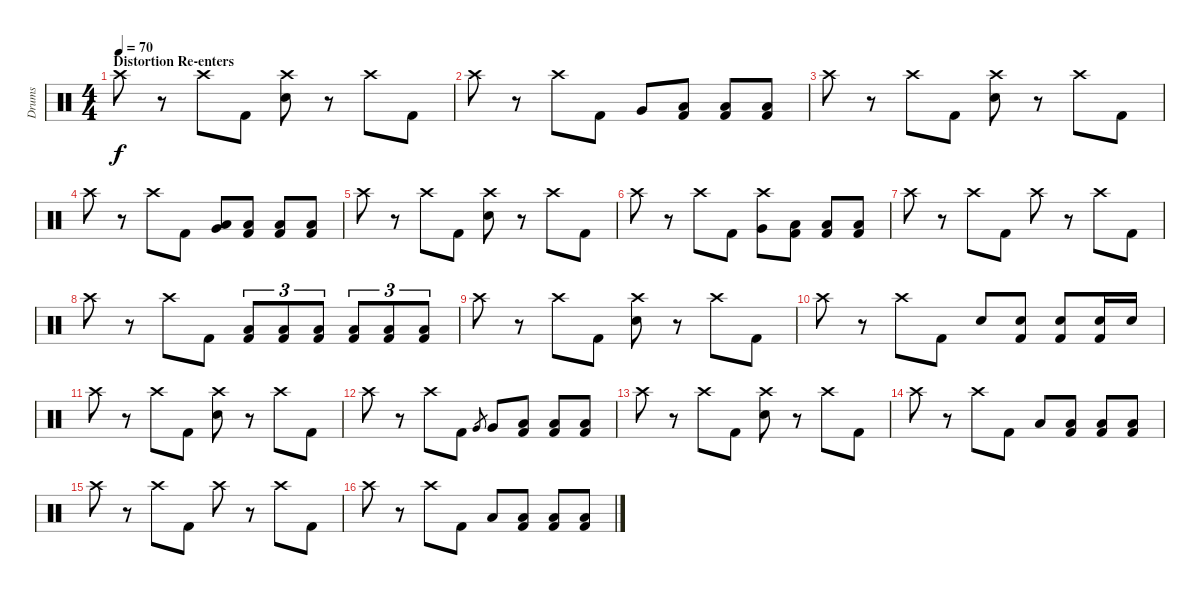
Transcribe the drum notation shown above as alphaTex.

\track ("Drums" "Drums") {instrument percussion}
\staff {score}
\articulation defaults
\ts (4 4)
\section ("" "Distortion Re-enters")
\tempo 70
\clef neutral
\ks c "Crash high (hit)".8{dy f}
r.8 "Crash high (hit)".8 "Kick (hit) 2".8 ("Crash high (hit)" "Electric Snare (hit)").8 r.8 "Crash high (hit)".8 "Kick (hit) 2".8 |
"Crash high (hit)".8 r.8 "Crash high (hit)".8 "Kick (hit) 2".8 "Very Low Tom (hit)".8 ("Low Floor Tom (hit)" "Kick (hit) 2").8 ("Low Floor Tom (hit)" "Kick (hit) 2").8 ("Low Floor Tom (hit)" "Kick (hit) 2").8 |
"Crash high (hit)".8 r.8 "Crash high (hit)".8 "Kick (hit) 2".8 ("Crash high (hit)" "Electric Snare (hit)").8 r.8 "Crash high (hit)".8 "Kick (hit) 2".8 |
"Crash high (hit)".8 r.8 "Crash high (hit)".8 "Kick (hit) 2".8 ("Low Tom (hit)" "Very Low Tom (hit)").8 ("Low Floor Tom (hit)" "Kick (hit) 2").8 ("Low Floor Tom (hit)" "Kick (hit) 2").8 ("Low Floor Tom (hit)" "Kick (hit) 2").8 |
"Crash high (hit)".8 r.8 "Crash high (hit)".8 "Kick (hit) 2".8 ("Crash high (hit)" "Electric Snare (hit)").8 r.8 "Crash high (hit)".8 "Kick (hit) 2".8 |
"Crash high (hit)".8 r.8 "Crash high (hit)".8 "Kick (hit) 2".8 ("Crash high (hit)" "Very Low Tom (hit)").8 ("Low Floor Tom (hit)" "Kick (hit) 2").8 ("Low Floor Tom (hit)" "Kick (hit) 2").8 ("Low Floor Tom (hit)" "Kick (hit) 2").8 |
"Crash high (hit)".8 r.8 "Crash high (hit)".8 "Kick (hit) 2".8 "Crash high (hit)".8 r.8 "Crash high (hit)".8 "Kick (hit) 2".8 |
"Crash high (hit)".8 r.8 "Crash high (hit)".8 "Kick (hit) 2".8 ("Low Floor Tom (hit)" "Kick (hit) 2").8{tu (3 2)} ("Low Floor Tom (hit)" "Kick (hit) 2").8{tu (3 2)} ("Low Floor Tom (hit)" "Kick (hit) 2").8{tu (3 2)} ("Low Floor Tom (hit)" "Kick (hit) 2").8{tu (3 2)} ("Low Floor Tom (hit)" "Kick (hit) 2").8{tu (3 2)} ("Low Floor Tom (hit)" "Kick (hit) 2").8{tu (3 2)} |
"Crash high (hit)".8 r.8 "Crash high (hit)".8 "Kick (hit) 2".8 ("Crash high (hit)" "Electric Snare (hit)").8 r.8 "Crash high (hit)".8 "Kick (hit) 2".8 |
"Crash high (hit)".8 r.8 "Crash high (hit)".8 "Kick (hit) 2".8 "Electric Snare (hit)".8 ("Electric Snare (hit)" "Kick (hit) 2").8 ("Electric Snare (hit)" "Kick (hit) 2").8 ("Electric Snare (hit)" "Kick (hit) 2").16 "Electric Snare (hit)".16 |
"Crash high (hit)".8 r.8 "Crash high (hit)".8 "Kick (hit) 2".8 ("Crash high (hit)" "Electric Snare (hit)").8 r.8 "Crash high (hit)".8 "Kick (hit) 2".8 |
"Crash high (hit)".8 r.8 "Crash high (hit)".8 "Kick (hit) 2".8 "Very Low Tom (hit)".8{gr} "Very Low Tom (hit)".8 ("Low Floor Tom (hit)" "Kick (hit) 2").8 ("Low Floor Tom (hit)" "Kick (hit) 2").8 ("Low Floor Tom (hit)" "Kick (hit) 2").8 |
"Crash high (hit)".8 r.8 "Crash high (hit)".8 "Kick (hit) 2".8 ("Crash high (hit)" "Electric Snare (hit)").8 r.8 "Crash high (hit)".8 "Kick (hit) 2".8 |
"Crash high (hit)".8 r.8 "Crash high (hit)".8 "Kick (hit) 2".8 "Low Floor Tom (hit)".8 ("Low Floor Tom (hit)" "Kick (hit) 2").8 ("Low Floor Tom (hit)" "Kick (hit) 2").8 ("Low Floor Tom (hit)" "Kick (hit) 2").8 |
"Crash high (hit)".8 r.8 "Crash high (hit)".8 "Kick (hit) 2".8 "Crash high (hit)".8 r.8 "Crash high (hit)".8 "Kick (hit) 2".8 |
"Crash high (hit)".8 r.8 "Crash high (hit)".8 "Kick (hit) 2".8 "Low Floor Tom (hit)".8 ("Low Floor Tom (hit)" "Kick (hit) 2").8 ("Low Floor Tom (hit)" "Kick (hit) 2").8 ("Low Floor Tom (hit)" "Kick (hit) 2").8
